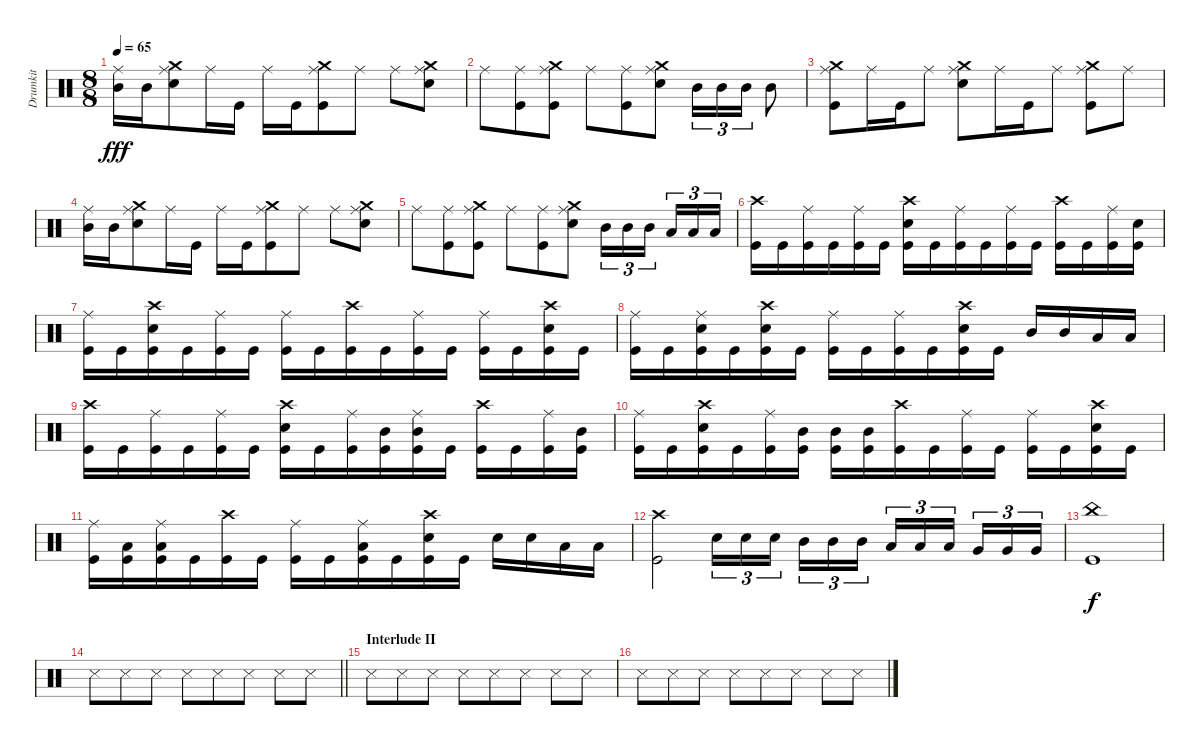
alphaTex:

\track ("Drumkit" "Drumkit") {instrument percussion}
\staff {score}
\articulation defaults
\ts (8 8)
\tempo 65
\clef neutral
\ks c
("Ride (middle)" "Mid Tom (hit)").16{dy fff} "Mid Tom (hit)".16 ("Ride (middle)" "Crash medium (hit)" "Snare (hit) 2").8 "Ride (middle)".16 "Kick (hit)".16 "Ride (middle)".16 "Kick (hit)".16 ("Ride (middle)" "Crash medium (hit)" "Kick (hit)").8 "Ride (middle)".8 "Ride (middle)".8 ("Ride (middle)" "Crash medium (hit)" "Snare (hit) 2").8 |
"Ride (middle)".8 ("Ride (middle)" "Kick (hit)").8 ("Ride (middle)" "Crash medium (hit)" "Kick (hit)").8 "Ride (middle)".8 ("Ride (middle)" "Kick (hit)").8 ("Ride (middle)" "Crash medium (hit)" "Snare (hit) 2").8 "Mid Tom (hit)".16{tu (3 2)} "Mid Tom (hit)".16{tu (3 2)} "Mid Tom (hit)".16{tu (3 2)} "Mid Tom (hit)".8 |
("Ride (middle)" "Crash medium (hit)" "Kick (hit)").8 "Ride (middle)".16 "Kick (hit)".16 "Ride (middle)".8 ("Ride (middle)" "Crash medium (hit)" "Snare (hit) 2").8 "Ride (middle)".16 "Kick (hit)".16 "Ride (middle)".8 ("Ride (middle)" "Crash medium (hit)" "Kick (hit)").8 "Ride (middle)".8 |
("Ride (middle)" "Mid Tom (hit)").16 "Mid Tom (hit)".16 ("Ride (middle)" "Crash medium (hit)" "Snare (hit) 2").8 "Ride (middle)".16 "Kick (hit)".16 "Ride (middle)".16 "Kick (hit)".16 ("Ride (middle)" "Crash medium (hit)" "Kick (hit)").8 "Ride (middle)".8 "Ride (middle)".8 ("Ride (middle)" "Crash medium (hit)" "Snare (hit) 2").8 |
"Ride (middle)".8 ("Ride (middle)" "Kick (hit)").8 ("Ride (middle)" "Crash medium (hit)" "Kick (hit)").8 "Ride (middle)".8 ("Ride (middle)" "Kick (hit)").8 ("Ride (middle)" "Crash medium (hit)" "Snare (hit) 2").8 "Mid Tom (hit)".16{tu (3 2)} "Mid Tom (hit)".16{tu (3 2)} "Mid Tom (hit)".16{tu (3 2)} "Low Tom (hit)".16{tu (3 2)} "Low Tom (hit)".16{tu (3 2)} "Low Tom (hit)".16{tu (3 2)} |
("Kick (hit)" "Crash high (hit)").16 "Kick (hit)".16 ("Kick (hit)" "Ride (middle)").16 "Kick (hit)".16 ("Kick (hit)" "Ride (middle)").16 "Kick (hit)".16 ("Kick (hit)" "Crash high (hit)" "Snare (hit) 2").16 "Kick (hit)".16 ("Kick (hit)" "Ride (middle)").16 "Kick (hit)".16 ("Kick (hit)" "Ride (middle)").16 "Kick (hit)".16 ("Kick (hit)" "Crash high (hit)").16 "Kick (hit)".16 ("Kick (hit)" "Ride (middle)").16 ("Kick (hit)" "Snare (hit) 2").16 |
("Kick (hit)" "Ride (middle)").16 "Kick (hit)".16 ("Kick (hit)" "Crash high (hit)" "Snare (hit) 2").16 "Kick (hit)".16 ("Kick (hit)" "Ride (middle)").16 "Kick (hit)".16 ("Kick (hit)" "Ride (middle)").16 "Kick (hit)".16 ("Kick (hit)" "Crash high (hit)").16 "Kick (hit)".16 ("Kick (hit)" "Ride (middle)").16 "Kick (hit)".16 ("Kick (hit)" "Ride (middle)").16 "Kick (hit)".16 ("Kick (hit)" "Crash high (hit)" "Snare (hit) 2").16 "Kick (hit)".16 |
("Kick (hit)" "Ride (middle)").16 "Kick (hit)".16 ("Kick (hit)" "Snare (hit) 2" "Ride (middle)").16 "Kick (hit)".16 ("Kick (hit)" "Crash high (hit)" "Snare (hit) 2").16 "Kick (hit)".16 ("Kick (hit)" "Ride (middle)").16 "Kick (hit)".16 ("Kick (hit)" "Ride (middle)").16 "Kick (hit)".16 ("Kick (hit)" "Crash high (hit)" "Snare (hit) 2").16 "Kick (hit)".16 "Mid Tom (hit)".16 "Mid Tom (hit)".16 "Low Tom (hit)".16 "Low Tom (hit)".16 |
("Kick (hit)" "Crash high (hit)").16 "Kick (hit)".16 ("Kick (hit)" "Ride (middle)").16 "Kick (hit)".16 ("Kick (hit)" "Ride (middle)").16 "Kick (hit)".16 ("Kick (hit)" "Crash high (hit)" "Snare (hit) 2").16 "Kick (hit)".16 ("Kick (hit)" "Ride (middle)").16 ("Kick (hit)" "Mid Tom (hit)").16 ("Kick (hit)" "Ride (middle)" "Mid Tom (hit)").16 "Kick (hit)".16 ("Kick (hit)" "Crash high (hit)").16 "Kick (hit)".16 ("Kick (hit)" "Ride (middle)").16 ("Kick (hit)" "Mid Tom (hit)").16 |
("Kick (hit)" "Ride (middle)").16 "Kick (hit)".16 ("Kick (hit)" "Crash high (hit)" "Snare (hit) 2").16 "Kick (hit)".16 ("Kick (hit)" "Ride (middle)").16 ("Kick (hit)" "Mid Tom (hit)").16 ("Kick (hit)" "Mid Tom (hit)").16 ("Kick (hit)" "Mid Tom (hit)").16 ("Kick (hit)" "Crash high (hit)").16 "Kick (hit)".16 ("Kick (hit)" "Ride (middle)").16 "Kick (hit)".16 ("Kick (hit)" "Ride (middle)").16 "Kick (hit)".16 ("Kick (hit)" "Crash high (hit)" "Snare (hit) 2").16 "Kick (hit)".16 |
("Kick (hit)" "Ride (middle)").16 ("Kick (hit)" "Low Tom (hit)").16 ("Kick (hit)" "Ride (middle)" "Low Tom (hit)").16 "Kick (hit)".16 ("Kick (hit)" "Crash high (hit)").16 "Kick (hit)".16 ("Kick (hit)" "Ride (middle)").16 "Kick (hit)".16 ("Kick (hit)" "Ride (middle)" "Low Tom (hit)").16 "Kick (hit)".16 ("Kick (hit)" "Crash high (hit)" "Snare (hit) 2").16 "Kick (hit)".16 "Snare (hit) 2".16 "Snare (hit) 2".16 "Low Tom (hit)".16 "Low Tom (hit)".16 |
("Kick (hit)" "Crash high (hit)").2 "Snare (hit) 2".16{tu (3 2)} "Snare (hit) 2".16{tu (3 2)} "Snare (hit) 2".16{tu (3 2)} "Mid Tom (hit)".16{tu (3 2)} "Mid Tom (hit)".16{tu (3 2)} "Mid Tom (hit)".16{tu (3 2)} "Low Tom (hit)".16{tu (3 2)} "Low Tom (hit)".16{tu (3 2)} "Low Tom (hit)".16{tu (3 2)} "Very Low Tom (hit)".16{tu (3 2)} "Very Low Tom (hit)".16{tu (3 2)} "Very Low Tom (hit)".16{tu (3 2)} |
("Kick (hit)" "China (hit)").1{dy f} |
\barLineRight lightlight "Snare (side stick) 3".8 "Snare (side stick) 3".8 "Snare (side stick) 3".8 "Snare (side stick) 3".8 "Snare (side stick) 3".8 "Snare (side stick) 3".8 "Snare (side stick) 3".8 "Snare (side stick) 3".8
|
\section ("" "Interlude II")
"Snare (side stick) 3".8 "Snare (side stick) 3".8 "Snare (side stick) 3".8 "Snare (side stick) 3".8 "Snare (side stick) 3".8 "Snare (side stick) 3".8 "Snare (side stick) 3".8 "Snare (side stick) 3".8 |
"Snare (side stick) 3".8 "Snare (side stick) 3".8 "Snare (side stick) 3".8 "Snare (side stick) 3".8 "Snare (side stick) 3".8 "Snare (side stick) 3".8 "Snare (side stick) 3".8 "Snare (side stick) 3".8
